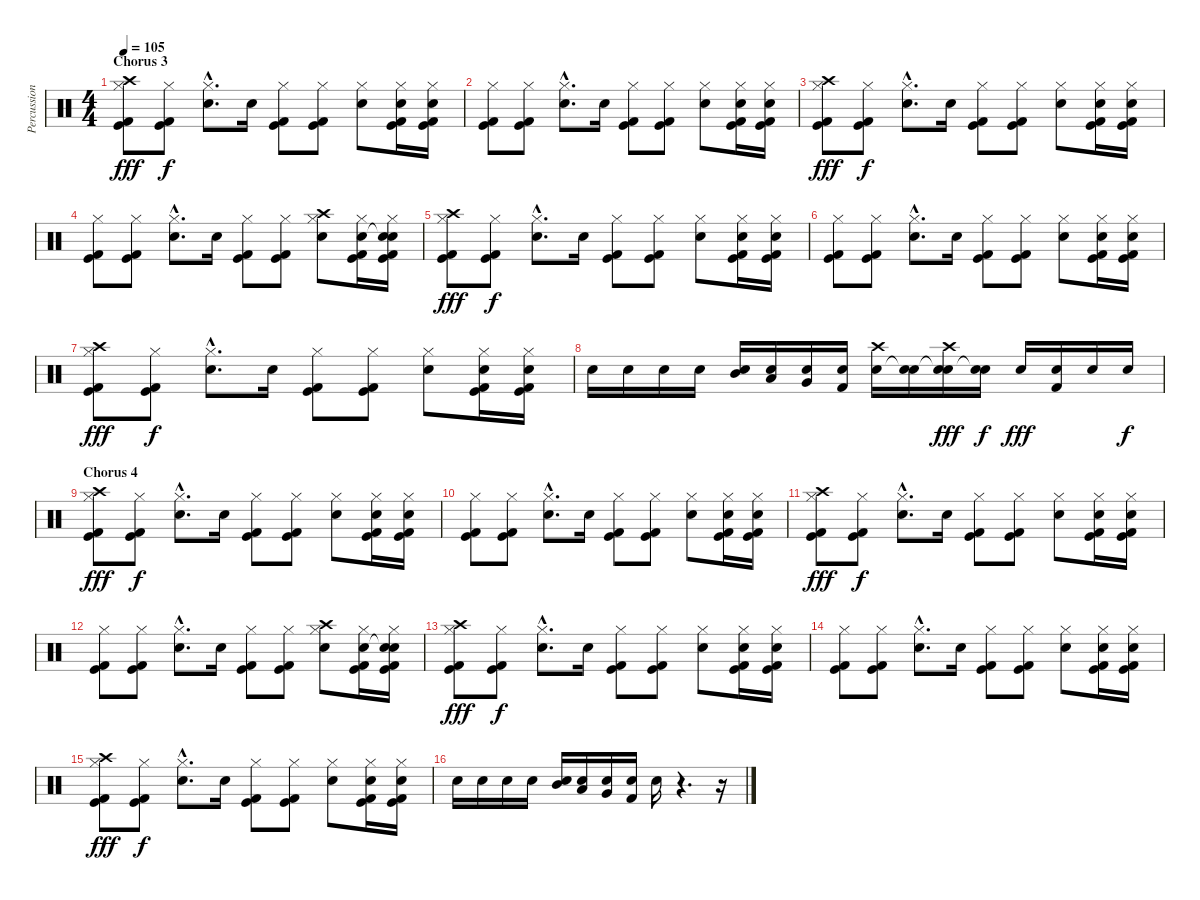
\track ("Percussion" "Percussion") {instrument percussion}
\staff {score}
\articulation defaults
\ts (4 4)
\section ("" "Chorus 3")
\tempo 105
\clef neutral
\ks c
("Kick (hit)" "Kick (hit) 2" "Hi-Hat (closed)" "Crash high (hit)").8{dy fff} ("Kick (hit)" "Kick (hit) 2" "Hi-Hat (closed)").8{dy f} ("Electric Snare (hit)"{hac} "Hi-Hat (closed)"{hac}).8{d} "Electric Snare (hit)".16 ("Kick (hit)" "Kick (hit) 2" "Hi-Hat (closed)").8 ("Kick (hit)" "Kick (hit) 2" "Hi-Hat (closed)").8 ("Electric Snare (hit)" "Hi-Hat (closed)").8 ("Kick (hit) 2" "Kick (hit)" "Electric Snare (hit)" "Hi-Hat (closed)").16 ("Kick (hit) 2" "Kick (hit)" "Electric Snare (hit)" "Hi-Hat (closed)").16 |
("Kick (hit)" "Kick (hit) 2" "Hi-Hat (closed)").8 ("Kick (hit)" "Kick (hit) 2" "Hi-Hat (closed)").8 ("Electric Snare (hit)"{hac} "Hi-Hat (closed)"{hac}).8{d} "Electric Snare (hit)".16 ("Kick (hit)" "Kick (hit) 2" "Hi-Hat (closed)").8 ("Kick (hit)" "Kick (hit) 2" "Hi-Hat (closed)").8 ("Electric Snare (hit)" "Hi-Hat (closed)").8 ("Kick (hit) 2" "Kick (hit)" "Electric Snare (hit)" "Hi-Hat (closed)").16 ("Kick (hit) 2" "Kick (hit)" "Electric Snare (hit)" "Hi-Hat (closed)").16 |
("Kick (hit)" "Kick (hit) 2" "Hi-Hat (closed)" "Crash high (hit)").8{dy fff} ("Kick (hit)" "Kick (hit) 2" "Hi-Hat (closed)").8{dy f} ("Electric Snare (hit)"{hac} "Hi-Hat (closed)"{hac}).8{d} "Electric Snare (hit)".16 ("Kick (hit)" "Kick (hit) 2" "Hi-Hat (closed)").8 ("Kick (hit)" "Kick (hit) 2" "Hi-Hat (closed)").8 ("Electric Snare (hit)" "Hi-Hat (closed)").8 ("Kick (hit) 2" "Kick (hit)" "Electric Snare (hit)" "Hi-Hat (closed)").16 ("Kick (hit) 2" "Kick (hit)" "Electric Snare (hit)" "Hi-Hat (closed)").16 |
("Kick (hit)" "Kick (hit) 2" "Hi-Hat (closed)").8 ("Kick (hit)" "Kick (hit) 2" "Hi-Hat (closed)").8 ("Electric Snare (hit)"{hac} "Hi-Hat (closed)"{hac}).8{d} "Electric Snare (hit)".16 ("Kick (hit)" "Kick (hit) 2" "Hi-Hat (closed)").8 ("Kick (hit)" "Kick (hit) 2" "Hi-Hat (closed)").8 ("Crash high (hit)" "Electric Snare (hit)" "Hi-Hat (closed)").8 ("Kick (hit) 2" "Kick (hit)" "Electric Snare (hit)" "Hi-Hat (closed)").16 ("Kick (hit) 2" "Kick (hit)" "Snare (hit)"{t} "Electric Snare (hit)" "Hi-Hat (closed)").16 |
("Kick (hit)" "Kick (hit) 2" "Hi-Hat (closed)" "Crash high (hit)").8{dy fff} ("Kick (hit)" "Kick (hit) 2" "Hi-Hat (closed)").8{dy f} ("Electric Snare (hit)"{hac} "Hi-Hat (closed)"{hac}).8{d} "Electric Snare (hit)".16 ("Kick (hit)" "Kick (hit) 2" "Hi-Hat (closed)").8 ("Kick (hit)" "Kick (hit) 2" "Hi-Hat (closed)").8 ("Electric Snare (hit)" "Hi-Hat (closed)").8 ("Kick (hit) 2" "Kick (hit)" "Electric Snare (hit)" "Hi-Hat (closed)").16 ("Kick (hit) 2" "Kick (hit)" "Electric Snare (hit)" "Hi-Hat (closed)").16 |
("Kick (hit)" "Kick (hit) 2" "Hi-Hat (closed)").8 ("Kick (hit)" "Kick (hit) 2" "Hi-Hat (closed)").8 ("Electric Snare (hit)"{hac} "Hi-Hat (closed)"{hac}).8{d} "Electric Snare (hit)".16 ("Kick (hit)" "Kick (hit) 2" "Hi-Hat (closed)").8 ("Kick (hit)" "Kick (hit) 2" "Hi-Hat (closed)").8 ("Electric Snare (hit)" "Hi-Hat (closed)").8 ("Kick (hit) 2" "Kick (hit)" "Electric Snare (hit)" "Hi-Hat (closed)").16 ("Kick (hit) 2" "Kick (hit)" "Electric Snare (hit)" "Hi-Hat (closed)").16 |
("Kick (hit)" "Kick (hit) 2" "Hi-Hat (closed)" "Crash high (hit)").8{dy fff} ("Kick (hit)" "Kick (hit) 2" "Hi-Hat (closed)").8{dy f} ("Electric Snare (hit)"{hac} "Hi-Hat (closed)"{hac}).8{d} "Electric Snare (hit)".16 ("Kick (hit)" "Kick (hit) 2" "Hi-Hat (closed)").8 ("Kick (hit)" "Kick (hit) 2" "Hi-Hat (closed)").8 ("Electric Snare (hit)" "Hi-Hat (closed)").8 ("Kick (hit) 2" "Kick (hit)" "Electric Snare (hit)" "Hi-Hat (closed)").16 ("Kick (hit) 2" "Kick (hit)" "Electric Snare (hit)" "Hi-Hat (closed)").16 |
"Electric Snare (hit)".16 "Snare (hit) 2".16 "Electric Snare (hit)".16 "Snare (hit) 2".16 ("Mid Tom (hit)" "Electric Snare (hit)").16 ("Low Tom (hit)" "Snare (hit) 2").16 ("Very Low Tom (hit)" "Electric Snare (hit)").16 ("Kick (hit) 2" "Snare (hit) 2").16 ("Electric Snare (hit)" "Crash high (hit)").16 ("Snare (hit)"{t} "Snare (hit) 2").16 ("Snare (hit)"{t} "Snare (hit) 2" "Crash high (hit)").16{dy fff} ("Snare (hit)"{t} "Snare (hit) 2").16{dy f} "Electric Snare (hit)".16{dy fff} ("Kick (hit) 2" "Snare (hit) 2").16 "Electric Snare (hit)".16 "Electric Snare (hit)".16{dy f} |
\section ("" "Chorus 4")
("Kick (hit)" "Kick (hit) 2" "Hi-Hat (closed)" "Crash high (hit)").8{dy fff} ("Kick (hit)" "Kick (hit) 2" "Hi-Hat (closed)").8{dy f} ("Electric Snare (hit)"{hac} "Hi-Hat (closed)"{hac}).8{d} "Electric Snare (hit)".16 ("Kick (hit)" "Kick (hit) 2" "Hi-Hat (closed)").8 ("Kick (hit)" "Kick (hit) 2" "Hi-Hat (closed)").8 ("Electric Snare (hit)" "Hi-Hat (closed)").8 ("Kick (hit) 2" "Kick (hit)" "Electric Snare (hit)" "Hi-Hat (closed)").16 ("Kick (hit) 2" "Kick (hit)" "Electric Snare (hit)" "Hi-Hat (closed)").16 |
("Kick (hit)" "Kick (hit) 2" "Hi-Hat (closed)").8 ("Kick (hit)" "Kick (hit) 2" "Hi-Hat (closed)").8 ("Electric Snare (hit)"{hac} "Hi-Hat (closed)"{hac}).8{d} "Electric Snare (hit)".16 ("Kick (hit)" "Kick (hit) 2" "Hi-Hat (closed)").8 ("Kick (hit)" "Kick (hit) 2" "Hi-Hat (closed)").8 ("Electric Snare (hit)" "Hi-Hat (closed)").8 ("Kick (hit) 2" "Kick (hit)" "Electric Snare (hit)" "Hi-Hat (closed)").16 ("Kick (hit) 2" "Kick (hit)" "Electric Snare (hit)" "Hi-Hat (closed)").16 |
("Kick (hit)" "Kick (hit) 2" "Hi-Hat (closed)" "Crash high (hit)").8{dy fff} ("Kick (hit)" "Kick (hit) 2" "Hi-Hat (closed)").8{dy f} ("Electric Snare (hit)"{hac} "Hi-Hat (closed)"{hac}).8{d} "Electric Snare (hit)".16 ("Kick (hit)" "Kick (hit) 2" "Hi-Hat (closed)").8 ("Kick (hit)" "Kick (hit) 2" "Hi-Hat (closed)").8 ("Electric Snare (hit)" "Hi-Hat (closed)").8 ("Kick (hit) 2" "Kick (hit)" "Electric Snare (hit)" "Hi-Hat (closed)").16 ("Kick (hit) 2" "Kick (hit)" "Electric Snare (hit)" "Hi-Hat (closed)").16 |
("Kick (hit)" "Kick (hit) 2" "Hi-Hat (closed)").8 ("Kick (hit)" "Kick (hit) 2" "Hi-Hat (closed)").8 ("Electric Snare (hit)"{hac} "Hi-Hat (closed)"{hac}).8{d} "Electric Snare (hit)".16 ("Kick (hit)" "Kick (hit) 2" "Hi-Hat (closed)").8 ("Kick (hit)" "Kick (hit) 2" "Hi-Hat (closed)").8 ("Crash high (hit)" "Electric Snare (hit)" "Hi-Hat (closed)").8 ("Kick (hit) 2" "Kick (hit)" "Electric Snare (hit)" "Hi-Hat (closed)").16 ("Kick (hit) 2" "Kick (hit)" "Snare (hit)"{t} "Electric Snare (hit)" "Hi-Hat (closed)").16 |
("Kick (hit)" "Kick (hit) 2" "Hi-Hat (closed)" "Crash high (hit)").8{dy fff} ("Kick (hit)" "Kick (hit) 2" "Hi-Hat (closed)").8{dy f} ("Electric Snare (hit)"{hac} "Hi-Hat (closed)"{hac}).8{d} "Electric Snare (hit)".16 ("Kick (hit)" "Kick (hit) 2" "Hi-Hat (closed)").8 ("Kick (hit)" "Kick (hit) 2" "Hi-Hat (closed)").8 ("Electric Snare (hit)" "Hi-Hat (closed)").8 ("Kick (hit) 2" "Kick (hit)" "Electric Snare (hit)" "Hi-Hat (closed)").16 ("Kick (hit) 2" "Kick (hit)" "Electric Snare (hit)" "Hi-Hat (closed)").16 |
("Kick (hit)" "Kick (hit) 2" "Hi-Hat (closed)").8 ("Kick (hit)" "Kick (hit) 2" "Hi-Hat (closed)").8 ("Electric Snare (hit)"{hac} "Hi-Hat (closed)"{hac}).8{d} "Electric Snare (hit)".16 ("Kick (hit)" "Kick (hit) 2" "Hi-Hat (closed)").8 ("Kick (hit)" "Kick (hit) 2" "Hi-Hat (closed)").8 ("Electric Snare (hit)" "Hi-Hat (closed)").8 ("Kick (hit) 2" "Kick (hit)" "Electric Snare (hit)" "Hi-Hat (closed)").16 ("Kick (hit) 2" "Kick (hit)" "Electric Snare (hit)" "Hi-Hat (closed)").16 |
("Kick (hit)" "Kick (hit) 2" "Hi-Hat (closed)" "Crash high (hit)").8{dy fff} ("Kick (hit)" "Kick (hit) 2" "Hi-Hat (closed)").8{dy f} ("Electric Snare (hit)"{hac} "Hi-Hat (closed)"{hac}).8{d} "Electric Snare (hit)".16 ("Kick (hit)" "Kick (hit) 2" "Hi-Hat (closed)").8 ("Kick (hit)" "Kick (hit) 2" "Hi-Hat (closed)").8 ("Electric Snare (hit)" "Hi-Hat (closed)").8 ("Kick (hit) 2" "Kick (hit)" "Electric Snare (hit)" "Hi-Hat (closed)").16 ("Kick (hit) 2" "Kick (hit)" "Electric Snare (hit)" "Hi-Hat (closed)").16 |
"Electric Snare (hit)".16 "Snare (hit) 2".16 "Electric Snare (hit)".16 "Snare (hit) 2".16 ("Mid Tom (hit)" "Electric Snare (hit)").16 ("Low Tom (hit)" "Snare (hit) 2").16 ("Very Low Tom (hit)" "Electric Snare (hit)").16 ("Kick (hit) 2" "Snare (hit) 2").16 "Electric Snare (hit)".16 r.4{d} r.16
